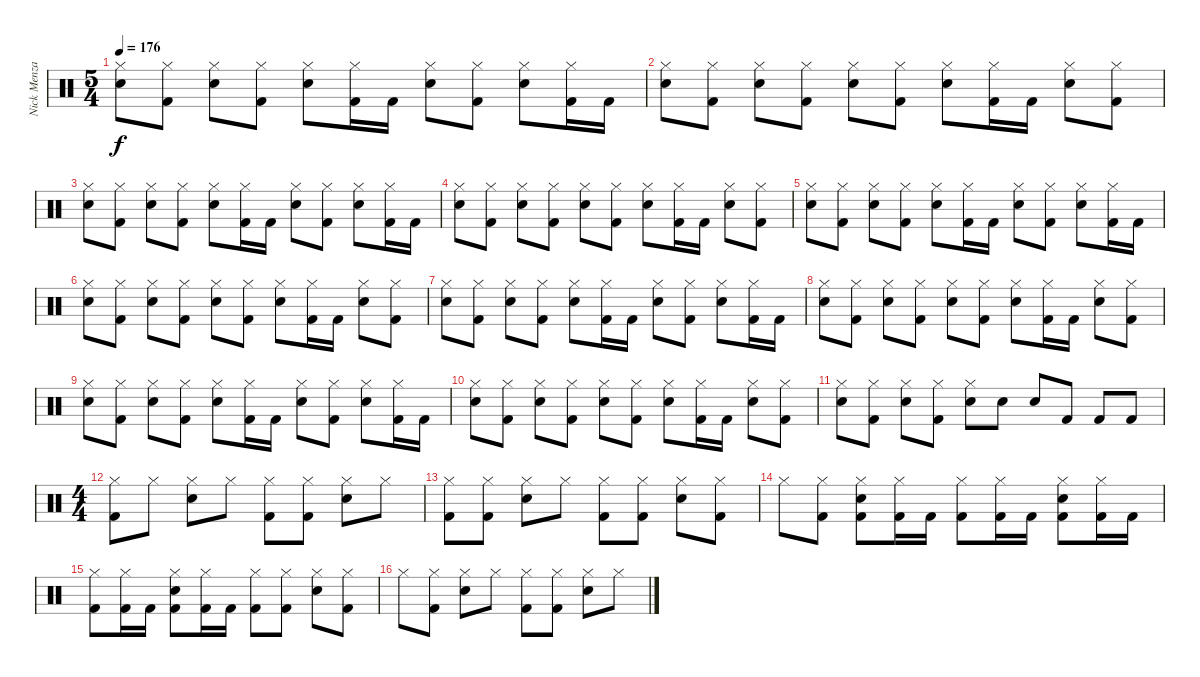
\track ("Nick Menza" "Nick Menza") {instrument percussion}
\staff {score}
\articulation defaults
\ts (5 4)
\tempo 176
\clef neutral
\ks c
("Hi-Hat (closed)" "Electric Snare (hit)").8{dy f} ("Hi-Hat (closed)" "Kick (hit) 2").8 ("Hi-Hat (closed)" "Electric Snare (hit)").8 ("Hi-Hat (closed)" "Kick (hit) 2").8 ("Hi-Hat (closed)" "Electric Snare (hit)").8 ("Hi-Hat (closed)" "Kick (hit) 2").16 "Kick (hit) 2".16 ("Hi-Hat (closed)" "Electric Snare (hit)").8 ("Hi-Hat (closed)" "Kick (hit) 2").8 ("Hi-Hat (closed)" "Electric Snare (hit)").8 ("Hi-Hat (closed)" "Kick (hit) 2").16 "Kick (hit) 2".16 |
("Hi-Hat (closed)" "Electric Snare (hit)").8 ("Hi-Hat (closed)" "Kick (hit) 2").8 ("Hi-Hat (closed)" "Electric Snare (hit)").8 ("Hi-Hat (closed)" "Kick (hit) 2").8 ("Hi-Hat (closed)" "Electric Snare (hit)").8 ("Hi-Hat (closed)" "Kick (hit) 2").8 ("Hi-Hat (closed)" "Electric Snare (hit)").8 ("Hi-Hat (closed)" "Kick (hit) 2").16 "Kick (hit) 2".16 ("Hi-Hat (closed)" "Electric Snare (hit)").8 ("Hi-Hat (closed)" "Kick (hit) 2").8 |
("Hi-Hat (closed)" "Electric Snare (hit)").8 ("Hi-Hat (closed)" "Kick (hit) 2").8 ("Hi-Hat (closed)" "Electric Snare (hit)").8 ("Hi-Hat (closed)" "Kick (hit) 2").8 ("Hi-Hat (closed)" "Electric Snare (hit)").8 ("Hi-Hat (closed)" "Kick (hit) 2").16 "Kick (hit) 2".16 ("Hi-Hat (closed)" "Electric Snare (hit)").8 ("Hi-Hat (closed)" "Kick (hit) 2").8 ("Hi-Hat (closed)" "Electric Snare (hit)").8 ("Hi-Hat (closed)" "Kick (hit) 2").16 "Kick (hit) 2".16 |
("Hi-Hat (closed)" "Electric Snare (hit)").8 ("Hi-Hat (closed)" "Kick (hit) 2").8 ("Hi-Hat (closed)" "Electric Snare (hit)").8 ("Hi-Hat (closed)" "Kick (hit) 2").8 ("Hi-Hat (closed)" "Electric Snare (hit)").8 ("Hi-Hat (closed)" "Kick (hit) 2").8 ("Hi-Hat (closed)" "Electric Snare (hit)").8 ("Hi-Hat (closed)" "Kick (hit) 2").16 "Kick (hit) 2".16 ("Hi-Hat (closed)" "Electric Snare (hit)").8 ("Hi-Hat (closed)" "Kick (hit) 2").8 |
("Hi-Hat (closed)" "Electric Snare (hit)").8 ("Hi-Hat (closed)" "Kick (hit) 2").8 ("Hi-Hat (closed)" "Electric Snare (hit)").8 ("Hi-Hat (closed)" "Kick (hit) 2").8 ("Hi-Hat (closed)" "Electric Snare (hit)").8 ("Hi-Hat (closed)" "Kick (hit) 2").16 "Kick (hit) 2".16 ("Hi-Hat (closed)" "Electric Snare (hit)").8 ("Hi-Hat (closed)" "Kick (hit) 2").8 ("Hi-Hat (closed)" "Electric Snare (hit)").8 ("Hi-Hat (closed)" "Kick (hit) 2").16 "Kick (hit) 2".16 |
("Hi-Hat (closed)" "Electric Snare (hit)").8 ("Hi-Hat (closed)" "Kick (hit) 2").8 ("Hi-Hat (closed)" "Electric Snare (hit)").8 ("Hi-Hat (closed)" "Kick (hit) 2").8 ("Hi-Hat (closed)" "Electric Snare (hit)").8 ("Hi-Hat (closed)" "Kick (hit) 2").8 ("Hi-Hat (closed)" "Electric Snare (hit)").8 ("Hi-Hat (closed)" "Kick (hit) 2").16 "Kick (hit) 2".16 ("Hi-Hat (closed)" "Electric Snare (hit)").8 ("Hi-Hat (closed)" "Kick (hit) 2").8 |
("Hi-Hat (closed)" "Electric Snare (hit)").8 ("Hi-Hat (closed)" "Kick (hit) 2").8 ("Hi-Hat (closed)" "Electric Snare (hit)").8 ("Hi-Hat (closed)" "Kick (hit) 2").8 ("Hi-Hat (closed)" "Electric Snare (hit)").8 ("Hi-Hat (closed)" "Kick (hit) 2").16 "Kick (hit) 2".16 ("Hi-Hat (closed)" "Electric Snare (hit)").8 ("Hi-Hat (closed)" "Kick (hit) 2").8 ("Hi-Hat (closed)" "Electric Snare (hit)").8 ("Hi-Hat (closed)" "Kick (hit) 2").16 "Kick (hit) 2".16 |
("Hi-Hat (closed)" "Electric Snare (hit)").8 ("Hi-Hat (closed)" "Kick (hit) 2").8 ("Hi-Hat (closed)" "Electric Snare (hit)").8 ("Hi-Hat (closed)" "Kick (hit) 2").8 ("Hi-Hat (closed)" "Electric Snare (hit)").8 ("Hi-Hat (closed)" "Kick (hit) 2").8 ("Hi-Hat (closed)" "Electric Snare (hit)").8 ("Hi-Hat (closed)" "Kick (hit) 2").16 "Kick (hit) 2".16 ("Hi-Hat (closed)" "Electric Snare (hit)").8 ("Hi-Hat (closed)" "Kick (hit) 2").8 |
("Hi-Hat (closed)" "Electric Snare (hit)").8 ("Hi-Hat (closed)" "Kick (hit) 2").8 ("Hi-Hat (closed)" "Electric Snare (hit)").8 ("Hi-Hat (closed)" "Kick (hit) 2").8 ("Hi-Hat (closed)" "Electric Snare (hit)").8 ("Hi-Hat (closed)" "Kick (hit) 2").16 "Kick (hit) 2".16 ("Hi-Hat (closed)" "Electric Snare (hit)").8 ("Hi-Hat (closed)" "Kick (hit) 2").8 ("Hi-Hat (closed)" "Electric Snare (hit)").8 ("Hi-Hat (closed)" "Kick (hit) 2").16 "Kick (hit) 2".16 |
("Hi-Hat (closed)" "Electric Snare (hit)").8 ("Hi-Hat (closed)" "Kick (hit) 2").8 ("Hi-Hat (closed)" "Electric Snare (hit)").8 ("Hi-Hat (closed)" "Kick (hit) 2").8 ("Hi-Hat (closed)" "Electric Snare (hit)").8 ("Hi-Hat (closed)" "Kick (hit) 2").8 ("Hi-Hat (closed)" "Electric Snare (hit)").8 ("Hi-Hat (closed)" "Kick (hit) 2").16 "Kick (hit) 2".16 ("Hi-Hat (closed)" "Electric Snare (hit)").8 ("Hi-Hat (closed)" "Kick (hit) 2").8 |
("Hi-Hat (closed)" "Electric Snare (hit)").8 ("Hi-Hat (closed)" "Kick (hit) 2").8 ("Hi-Hat (closed)" "Electric Snare (hit)").8 ("Hi-Hat (closed)" "Kick (hit) 2").8 ("Hi-Hat (closed)" "Electric Snare (hit)").8 "Electric Snare (hit)".8 "Electric Snare (hit)".8 "Kick (hit) 2".8 "Kick (hit) 2".8 "Kick (hit) 2".8 |
\ts (4 4)
("Hi-Hat (closed)" "Kick (hit) 2").8 "Hi-Hat (closed)".8 ("Hi-Hat (closed)" "Electric Snare (hit)").8 "Hi-Hat (closed)".8 ("Hi-Hat (closed)" "Kick (hit) 2").8 ("Hi-Hat (closed)" "Kick (hit) 2").8 ("Hi-Hat (closed)" "Electric Snare (hit)").8 "Hi-Hat (closed)".8 |
("Hi-Hat (closed)" "Kick (hit) 2").8 ("Hi-Hat (closed)" "Kick (hit) 2").8 ("Hi-Hat (closed)" "Electric Snare (hit)").8 "Hi-Hat (closed)".8 ("Hi-Hat (closed)" "Kick (hit) 2").8 ("Hi-Hat (closed)" "Kick (hit) 2").8 ("Hi-Hat (closed)" "Electric Snare (hit)").8 ("Hi-Hat (closed)" "Kick (hit) 2").8 |
"Hi-Hat (closed)".8 ("Hi-Hat (closed)" "Kick (hit) 2").8 ("Hi-Hat (closed)" "Electric Snare (hit)" "Kick (hit) 2").8 ("Hi-Hat (closed)" "Kick (hit) 2").16 "Kick (hit) 2".16 ("Hi-Hat (closed)" "Kick (hit) 2").8 ("Hi-Hat (closed)" "Kick (hit) 2").16 "Kick (hit) 2".16 ("Hi-Hat (closed)" "Electric Snare (hit)" "Kick (hit) 2").8 ("Hi-Hat (closed)" "Kick (hit) 2").16 "Kick (hit) 2".16 |
("Hi-Hat (closed)" "Kick (hit) 2").8 ("Hi-Hat (closed)" "Kick (hit) 2").16 "Kick (hit) 2".16 ("Hi-Hat (closed)" "Electric Snare (hit)" "Kick (hit) 2").8 ("Hi-Hat (closed)" "Kick (hit) 2").16 "Kick (hit) 2".16 ("Hi-Hat (closed)" "Kick (hit) 2").8 ("Hi-Hat (closed)" "Kick (hit) 2").8 ("Hi-Hat (closed)" "Electric Snare (hit)").8 ("Hi-Hat (closed)" "Kick (hit) 2").8 |
"Hi-Hat (closed)".8 ("Hi-Hat (closed)" "Kick (hit) 2").8 ("Hi-Hat (closed)" "Electric Snare (hit)").8 "Hi-Hat (closed)".8 ("Hi-Hat (closed)" "Kick (hit) 2").8 ("Hi-Hat (closed)" "Kick (hit) 2").8 ("Hi-Hat (closed)" "Electric Snare (hit)").8 "Hi-Hat (closed)".8
